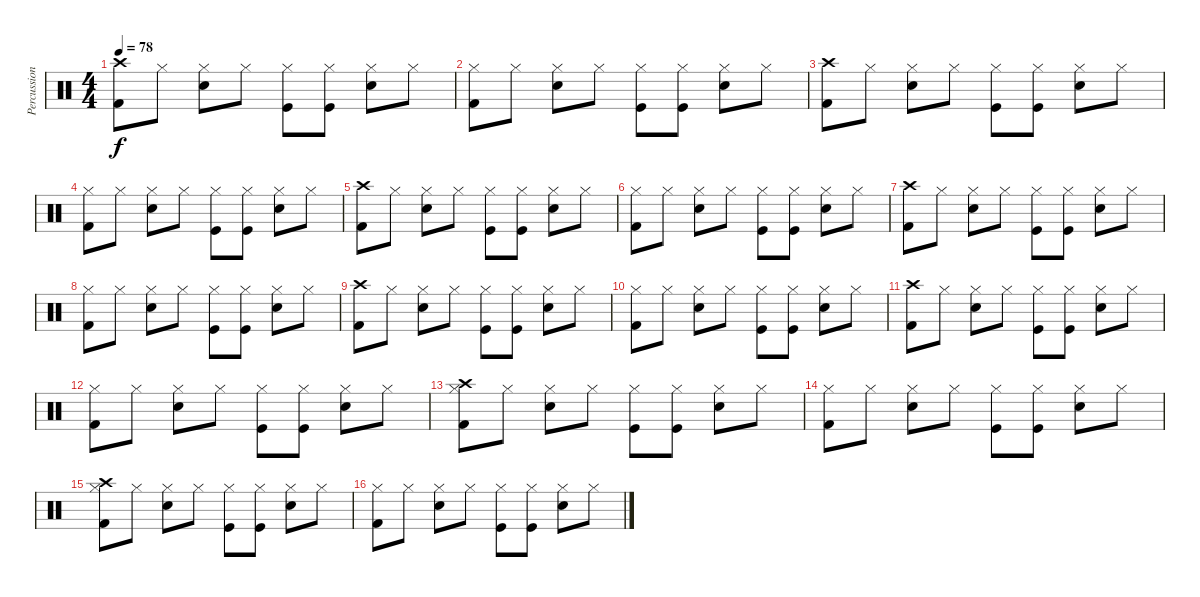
\track ("Percussion" "Percussion") {instrument percussion}
\staff {score}
\articulation defaults
\ts (4 4)
\tempo 78
\clef neutral
\ks c
("Crash high (hit)" "Kick (hit) 2").8{dy f} "Hi-Hat (closed)".8 ("Hi-Hat (closed)" "Electric Snare (hit)").8 "Hi-Hat (closed)".8 ("Hi-Hat (closed)" "Kick (hit)").8 ("Hi-Hat (closed)" "Kick (hit)").8 ("Hi-Hat (closed)" "Electric Snare (hit)").8 "Hi-Hat (closed)".8 |
("Hi-Hat (closed)" "Kick (hit) 2").8 "Hi-Hat (closed)".8 ("Hi-Hat (closed)" "Electric Snare (hit)").8 "Hi-Hat (closed)".8 ("Hi-Hat (closed)" "Kick (hit)").8 ("Hi-Hat (closed)" "Kick (hit)").8 ("Hi-Hat (closed)" "Electric Snare (hit)").8 "Hi-Hat (closed)".8 |
("Crash high (hit)" "Kick (hit) 2").8 "Hi-Hat (closed)".8 ("Hi-Hat (closed)" "Electric Snare (hit)").8 "Hi-Hat (closed)".8 ("Hi-Hat (closed)" "Kick (hit)").8 ("Hi-Hat (closed)" "Kick (hit)").8 ("Hi-Hat (closed)" "Electric Snare (hit)").8 "Hi-Hat (closed)".8 |
("Hi-Hat (closed)" "Kick (hit) 2").8 "Hi-Hat (closed)".8 ("Hi-Hat (closed)" "Electric Snare (hit)").8 "Hi-Hat (closed)".8 ("Hi-Hat (closed)" "Kick (hit)").8 ("Hi-Hat (closed)" "Kick (hit)").8 ("Hi-Hat (closed)" "Electric Snare (hit)").8 "Hi-Hat (closed)".8 |
("Crash high (hit)" "Kick (hit) 2").8 "Hi-Hat (closed)".8 ("Hi-Hat (closed)" "Electric Snare (hit)").8 "Hi-Hat (closed)".8 ("Hi-Hat (closed)" "Kick (hit)").8 ("Hi-Hat (closed)" "Kick (hit)").8 ("Hi-Hat (closed)" "Electric Snare (hit)").8 "Hi-Hat (closed)".8 |
("Hi-Hat (closed)" "Kick (hit) 2").8 "Hi-Hat (closed)".8 ("Hi-Hat (closed)" "Electric Snare (hit)").8 "Hi-Hat (closed)".8 ("Hi-Hat (closed)" "Kick (hit)").8 ("Hi-Hat (closed)" "Kick (hit)").8 ("Hi-Hat (closed)" "Electric Snare (hit)").8 "Hi-Hat (closed)".8 |
("Crash high (hit)" "Kick (hit) 2").8 "Hi-Hat (closed)".8 ("Hi-Hat (closed)" "Electric Snare (hit)").8 "Hi-Hat (closed)".8 ("Hi-Hat (closed)" "Kick (hit)").8 ("Hi-Hat (closed)" "Kick (hit)").8 ("Hi-Hat (closed)" "Electric Snare (hit)").8 "Hi-Hat (closed)".8 |
("Hi-Hat (closed)" "Kick (hit) 2").8 "Hi-Hat (closed)".8 ("Hi-Hat (closed)" "Electric Snare (hit)").8 "Hi-Hat (closed)".8 ("Hi-Hat (closed)" "Kick (hit)").8 ("Hi-Hat (closed)" "Kick (hit)").8 ("Hi-Hat (closed)" "Electric Snare (hit)").8 "Hi-Hat (closed)".8 |
("Crash high (hit)" "Kick (hit) 2").8 "Hi-Hat (closed)".8 ("Hi-Hat (closed)" "Electric Snare (hit)").8 "Hi-Hat (closed)".8 ("Hi-Hat (closed)" "Kick (hit)").8 ("Hi-Hat (closed)" "Kick (hit)").8 ("Hi-Hat (closed)" "Electric Snare (hit)").8 "Hi-Hat (closed)".8 |
("Hi-Hat (closed)" "Kick (hit) 2").8 "Hi-Hat (closed)".8 ("Hi-Hat (closed)" "Electric Snare (hit)").8 "Hi-Hat (closed)".8 ("Hi-Hat (closed)" "Kick (hit)").8 ("Hi-Hat (closed)" "Kick (hit)").8 ("Hi-Hat (closed)" "Electric Snare (hit)").8 "Hi-Hat (closed)".8 |
("Crash high (hit)" "Kick (hit) 2").8 "Hi-Hat (closed)".8 ("Hi-Hat (closed)" "Electric Snare (hit)").8 "Hi-Hat (closed)".8 ("Hi-Hat (closed)" "Kick (hit)").8 ("Hi-Hat (closed)" "Kick (hit)").8 ("Hi-Hat (closed)" "Electric Snare (hit)").8 "Hi-Hat (closed)".8 |
("Hi-Hat (closed)" "Kick (hit) 2").8 "Hi-Hat (closed)".8 ("Hi-Hat (closed)" "Electric Snare (hit)").8 "Hi-Hat (closed)".8 ("Hi-Hat (closed)" "Kick (hit)").8 ("Hi-Hat (closed)" "Kick (hit)").8 ("Hi-Hat (closed)" "Electric Snare (hit)").8 "Hi-Hat (closed)".8 |
("Crash high (hit)" "Hi-Hat (closed)" "Kick (hit) 2").8 "Hi-Hat (closed)".8 ("Hi-Hat (closed)" "Electric Snare (hit)").8 "Hi-Hat (closed)".8 ("Hi-Hat (closed)" "Kick (hit)").8 ("Hi-Hat (closed)" "Kick (hit)").8 ("Hi-Hat (closed)" "Electric Snare (hit)").8 "Hi-Hat (closed)".8 |
("Hi-Hat (closed)" "Kick (hit) 2").8 "Hi-Hat (closed)".8 ("Hi-Hat (closed)" "Electric Snare (hit)").8 "Hi-Hat (closed)".8 ("Hi-Hat (closed)" "Kick (hit)").8 ("Hi-Hat (closed)" "Kick (hit)").8 ("Hi-Hat (closed)" "Electric Snare (hit)").8 "Hi-Hat (closed)".8 |
("Crash high (hit)" "Hi-Hat (closed)" "Kick (hit) 2").8 "Hi-Hat (closed)".8 ("Hi-Hat (closed)" "Electric Snare (hit)").8 "Hi-Hat (closed)".8 ("Hi-Hat (closed)" "Kick (hit)").8 ("Hi-Hat (closed)" "Kick (hit)").8 ("Hi-Hat (closed)" "Electric Snare (hit)").8 "Hi-Hat (closed)".8 |
("Hi-Hat (closed)" "Kick (hit) 2").8 "Hi-Hat (closed)".8 ("Hi-Hat (closed)" "Electric Snare (hit)").8 "Hi-Hat (closed)".8 ("Hi-Hat (closed)" "Kick (hit)").8 ("Hi-Hat (closed)" "Kick (hit)").8 ("Hi-Hat (closed)" "Electric Snare (hit)").8 "Hi-Hat (closed)".8
